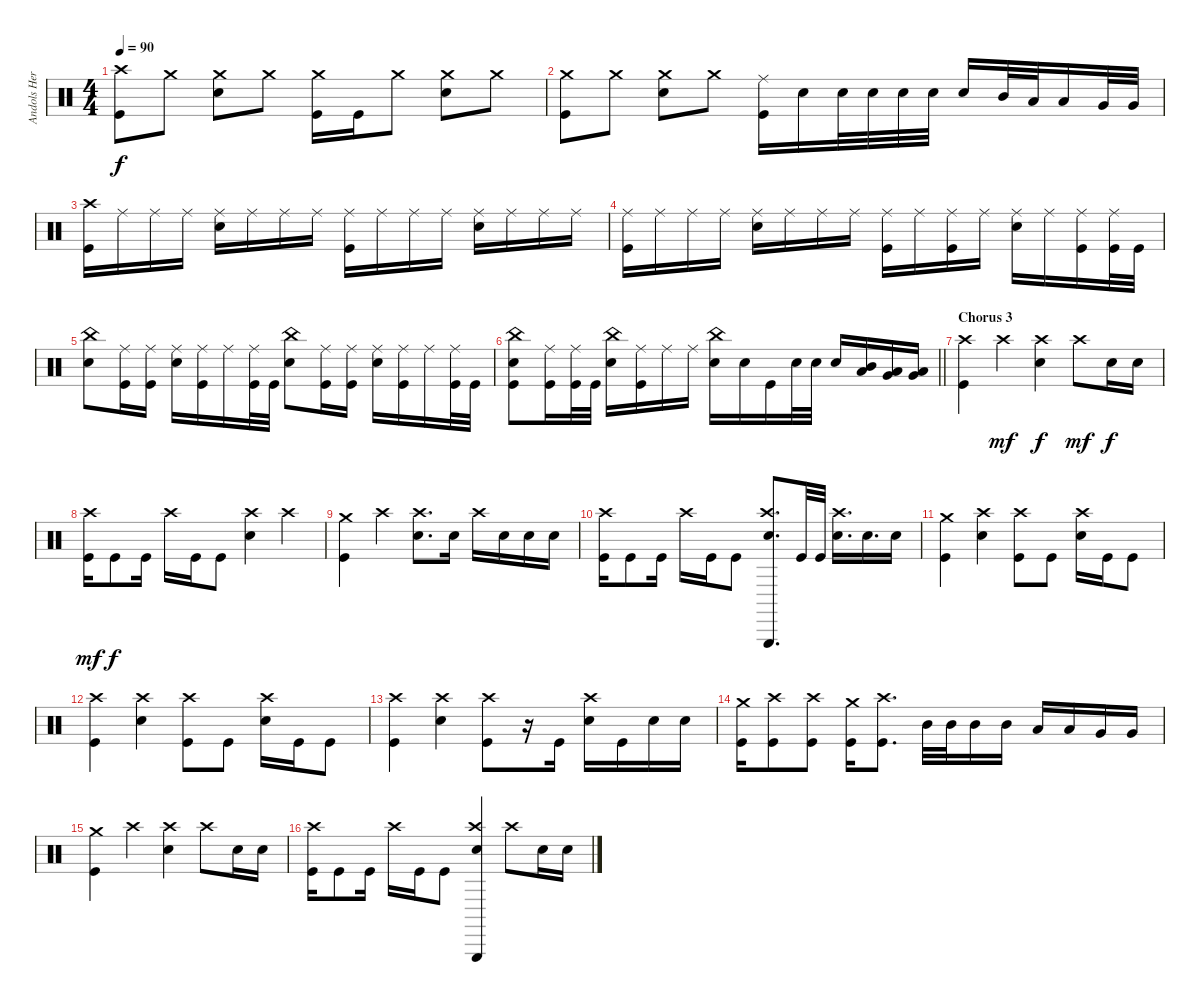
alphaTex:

\track ("Andols Herrick" "Andols Her") {instrument percussion}
\staff
\articulation defaults
\ts (4 4)
\tempo 90
\clef neutral
\ks c
("Crash high (hit)" "Kick (hit)").8{dy f} "Crash medium (hit)".8 ("Crash medium (hit)" "Electric Snare (hit)").8 "Crash medium (hit)".8 ("Crash medium (hit)" "Kick (hit)").16 "Kick (hit)".16 "Crash medium (hit)".8 ("Crash medium (hit)" "Electric Snare (hit)").8 "Crash medium (hit)".8 |
("Crash medium (hit)" "Kick (hit)").8 "Crash medium (hit)".8 ("Crash medium (hit)" "Electric Snare (hit)").8 "Crash medium (hit)".8 ("Ride (middle)" "Kick (hit)").16 "Electric Snare (hit)".16 "Electric Snare (hit)".32 "Electric Snare (hit)".32 "Electric Snare (hit)".32 "Electric Snare (hit)".32 "Electric Snare (hit)".16 "Mid Tom (hit)".32 "Low Tom (hit)".32 "Low Tom (hit)".16 "Very Low Tom (hit)".32 "Very Low Tom (hit)".32 |
("Crash high (hit)" "Kick (hit)").16 "Ride (middle)".16 "Ride (middle)".16 "Ride (middle)".16 ("Ride (middle)" "Electric Snare (hit)").16 "Ride (middle)".16 "Ride (middle)".16 "Ride (middle)".16 ("Ride (middle)" "Kick (hit)").16 "Ride (middle)".16 "Ride (middle)".16 "Ride (middle)".16 ("Ride (middle)" "Electric Snare (hit)").16 "Ride (middle)".16 "Ride (middle)".16 "Ride (middle)".16 |
("Ride (middle)" "Kick (hit)").16 "Ride (middle)".16 "Ride (middle)".16 "Ride (middle)".16 ("Ride (middle)" "Electric Snare (hit)").16 "Ride (middle)".16 "Ride (middle)".16 "Ride (middle)".16 ("Ride (middle)" "Kick (hit)").16 "Ride (middle)".16 ("Ride (middle)" "Kick (hit)").16 "Ride (middle)".16 ("Ride (middle)" "Electric Snare (hit)").16 "Ride (middle)".16 ("Ride (middle)" "Kick (hit)").16 ("Ride (middle)" "Kick (hit)").32 "Kick (hit)".32 |
("China (hit)" "Electric Snare (hit)").8 ("Ride (middle)" "Kick (hit)").16 ("Ride (middle)" "Kick (hit)").16 ("Ride (middle)" "Electric Snare (hit)").16 ("Ride (middle)" "Kick (hit)").16 "Ride (middle)".16 ("Ride (middle)" "Kick (hit)").32 "Kick (hit)".32 ("China (hit)" "Electric Snare (hit)").8 ("Ride (middle)" "Kick (hit)").16 ("Ride (middle)" "Kick (hit)").16 ("Ride (middle)" "Electric Snare (hit)").16 ("Ride (middle)" "Kick (hit)").16 "Ride (middle)".16 ("Ride (middle)" "Kick (hit)").32 "Kick (hit)".32 |
\barLineRight lightlight
("China (hit)" "Electric Snare (hit)" "Kick (hit)").8 ("Ride (middle)" "Kick (hit)").16 ("Ride (middle)" "Kick (hit)").32 "Kick (hit)".32 ("China (hit)" "Electric Snare (hit)").16 ("Ride (middle)" "Kick (hit)").16 "Ride (middle)".16 "Ride (middle)".16 ("China (hit)" "Electric Snare (hit)").16 "Electric Snare (hit)".16 "Kick (hit)".16 "Electric Snare (hit)".32 "Electric Snare (hit)".32 "Electric Snare (hit)".16 ("Mid Tom (hit)" "Low Tom (hit)").16 ("Low Tom (hit)" "Very Low Tom (hit)").16 ("Very Low Tom (hit)" "Low Floor Tom (hit)").16 |
\section ("" "Chorus 3")
("Crash high (hit)" "Kick (hit)").4 "Crash high (hit)".4{dy mf} ("Crash high (hit)" "Electric Snare (hit)").4{dy f} "Crash high (hit)".8{dy mf} "Electric Snare (hit)".16{dy f} "Electric Snare (hit)".16 |
("Crash high (hit)" "Kick (hit)").16{dy mf} "Kick (hit)".8{dy f} "Kick (hit)".16 "Crash high (hit)".16 "Kick (hit)".16 "Kick (hit)".8 ("Crash high (hit)" "Electric Snare (hit)").4 "Crash high (hit)".4 |
("Crash medium (hit)" "Kick (hit)").4 "Crash high (hit)".4 ("Crash high (hit)" "Electric Snare (hit)").8{d} "Electric Snare (hit)".16 "Crash high (hit)".16 "Electric Snare (hit)".16 "Electric Snare (hit)".16 "Electric Snare (hit)".16 |
("Crash high (hit)" "Kick (hit)").16 "Kick (hit)".8 "Kick (hit)".16 "Crash high (hit)".16 "Kick (hit)".16 "Kick (hit)".8 ("Triangle (hit)" "Crash high (hit)" "Electric Snare (hit)").8{d} "Kick (hit)".32 "Kick (hit)".32 ("Crash high (hit)" "Electric Snare (hit)").16{d} "Electric Snare (hit)".16{d} "Electric Snare (hit)".16 |
("Crash medium (hit)" "Kick (hit)").4 ("Crash high (hit)" "Electric Snare (hit)").4 ("Crash high (hit)" "Kick (hit)").8 "Kick (hit)".8 ("Crash high (hit)" "Electric Snare (hit)").16 "Kick (hit)".16 "Kick (hit)".8 |
("Crash high (hit)" "Kick (hit)").4 ("Crash high (hit)" "Electric Snare (hit)").4 ("Crash high (hit)" "Kick (hit)").8 "Kick (hit)".8 ("Crash high (hit)" "Electric Snare (hit)").16 "Kick (hit)".16 "Kick (hit)".8 |
("Crash high (hit)" "Kick (hit)").4 ("Crash high (hit)" "Electric Snare (hit)").4 ("Crash high (hit)" "Kick (hit)").8 r.16 "Kick (hit)".16 ("Crash high (hit)" "Electric Snare (hit)").16 "Kick (hit)".16 "Electric Snare (hit)".16 "Electric Snare (hit)".16 |
("Crash medium (hit)" "Kick (hit)").16 ("Crash high (hit)" "Kick (hit)").8 ("Crash high (hit)" "Kick (hit)").8 ("Crash medium (hit)" "Kick (hit)").16 ("Crash high (hit)" "Kick (hit)").8{d} "Mid Tom (hit)".32 "Mid Tom (hit)".32 "Mid Tom (hit)".16 "Mid Tom (hit)".16 "Low Tom (hit)".16 "Low Tom (hit)".16 "Very Low Tom (hit)".16 "Very Low Tom (hit)".16 |
("Crash medium (hit)" "Kick (hit)").4 "Crash high (hit)".4 ("Crash high (hit)" "Electric Snare (hit)").4 "Crash high (hit)".8 "Electric Snare (hit)".16 "Electric Snare (hit)".16 |
("Crash high (hit)" "Kick (hit)").16 "Kick (hit)".8 "Kick (hit)".16 "Crash high (hit)".16 "Kick (hit)".16 "Kick (hit)".8 ("Triangle (hit)" "Crash high (hit)" "Electric Snare (hit)").4 "Crash high (hit)".8 "Electric Snare (hit)".16 "Electric Snare (hit)".16
